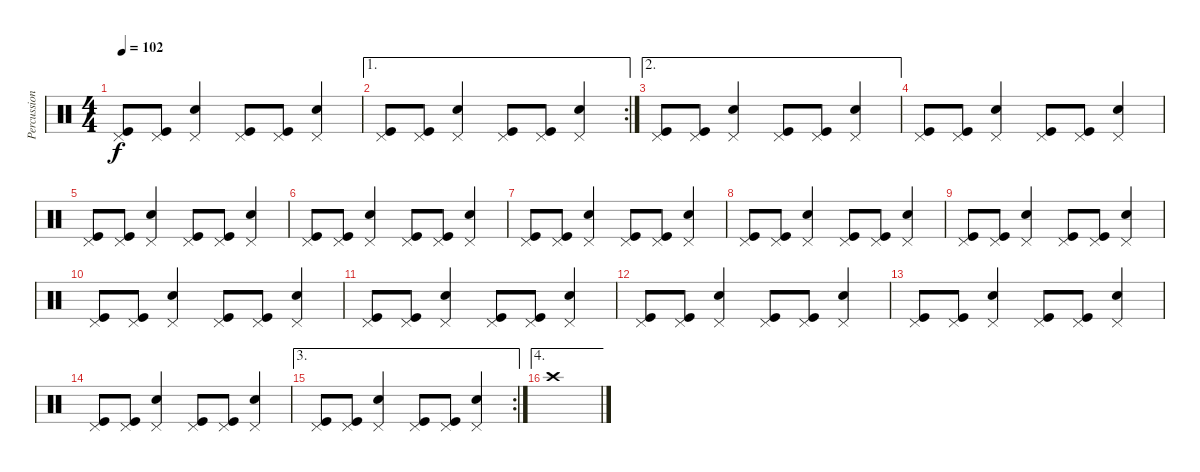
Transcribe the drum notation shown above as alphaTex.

\track ("Percussion" "Percussion") {instrument percussion}
\staff {score}
\articulation defaults
\ts (4 4)
\tempo 102
\clef neutral
\ks c
("Kick (hit)" "Pedal Hi-Hat (hit)").8{dy f} ("Pedal Hi-Hat (hit)" "Kick (hit)").8 ("Pedal Hi-Hat (hit)" "Snare (hit) 2").4 ("Kick (hit)" "Pedal Hi-Hat (hit)").8 ("Kick (hit)" "Pedal Hi-Hat (hit)").8 ("Snare (hit) 2" "Pedal Hi-Hat (hit)").4 |
\ae 1
\rc 2
("Kick (hit)" "Pedal Hi-Hat (hit)").8 ("Pedal Hi-Hat (hit)" "Kick (hit)").8 ("Pedal Hi-Hat (hit)" "Snare (hit) 2").4 ("Kick (hit)" "Pedal Hi-Hat (hit)").8 ("Kick (hit)" "Pedal Hi-Hat (hit)").8 ("Snare (hit) 2" "Pedal Hi-Hat (hit)").4 |
\ae 2
("Kick (hit)" "Pedal Hi-Hat (hit)").8 ("Pedal Hi-Hat (hit)" "Kick (hit)").8 ("Pedal Hi-Hat (hit)" "Snare (hit) 2").4 ("Kick (hit)" "Pedal Hi-Hat (hit)").8 ("Kick (hit)" "Pedal Hi-Hat (hit)").8 ("Snare (hit) 2" "Pedal Hi-Hat (hit)").4 |
("Kick (hit)" "Pedal Hi-Hat (hit)").8 ("Pedal Hi-Hat (hit)" "Kick (hit)").8 ("Pedal Hi-Hat (hit)" "Snare (hit) 2").4 ("Kick (hit)" "Pedal Hi-Hat (hit)").8 ("Kick (hit)" "Pedal Hi-Hat (hit)").8 ("Snare (hit) 2" "Pedal Hi-Hat (hit)").4 |
("Kick (hit)" "Pedal Hi-Hat (hit)").8 ("Pedal Hi-Hat (hit)" "Kick (hit)").8 ("Pedal Hi-Hat (hit)" "Snare (hit) 2").4 ("Kick (hit)" "Pedal Hi-Hat (hit)").8 ("Kick (hit)" "Pedal Hi-Hat (hit)").8 ("Snare (hit) 2" "Pedal Hi-Hat (hit)").4 |
("Kick (hit)" "Pedal Hi-Hat (hit)").8 ("Pedal Hi-Hat (hit)" "Kick (hit)").8 ("Pedal Hi-Hat (hit)" "Snare (hit) 2").4 ("Kick (hit)" "Pedal Hi-Hat (hit)").8 ("Kick (hit)" "Pedal Hi-Hat (hit)").8 ("Snare (hit) 2" "Pedal Hi-Hat (hit)").4 |
("Kick (hit)" "Pedal Hi-Hat (hit)").8 ("Pedal Hi-Hat (hit)" "Kick (hit)").8 ("Pedal Hi-Hat (hit)" "Snare (hit) 2").4 ("Kick (hit)" "Pedal Hi-Hat (hit)").8 ("Kick (hit)" "Pedal Hi-Hat (hit)").8 ("Snare (hit) 2" "Pedal Hi-Hat (hit)").4 |
("Kick (hit)" "Pedal Hi-Hat (hit)").8 ("Pedal Hi-Hat (hit)" "Kick (hit)").8 ("Pedal Hi-Hat (hit)" "Snare (hit) 2").4 ("Kick (hit)" "Pedal Hi-Hat (hit)").8 ("Kick (hit)" "Pedal Hi-Hat (hit)").8 ("Snare (hit) 2" "Pedal Hi-Hat (hit)").4 |
("Kick (hit)" "Pedal Hi-Hat (hit)").8 ("Pedal Hi-Hat (hit)" "Kick (hit)").8 ("Pedal Hi-Hat (hit)" "Snare (hit) 2").4 ("Kick (hit)" "Pedal Hi-Hat (hit)").8 ("Kick (hit)" "Pedal Hi-Hat (hit)").8 ("Snare (hit) 2" "Pedal Hi-Hat (hit)").4 |
("Kick (hit)" "Pedal Hi-Hat (hit)").8 ("Pedal Hi-Hat (hit)" "Kick (hit)").8 ("Pedal Hi-Hat (hit)" "Snare (hit) 2").4 ("Kick (hit)" "Pedal Hi-Hat (hit)").8 ("Kick (hit)" "Pedal Hi-Hat (hit)").8 ("Snare (hit) 2" "Pedal Hi-Hat (hit)").4 |
("Kick (hit)" "Pedal Hi-Hat (hit)").8 ("Pedal Hi-Hat (hit)" "Kick (hit)").8 ("Pedal Hi-Hat (hit)" "Snare (hit) 2").4 ("Kick (hit)" "Pedal Hi-Hat (hit)").8 ("Kick (hit)" "Pedal Hi-Hat (hit)").8 ("Snare (hit) 2" "Pedal Hi-Hat (hit)").4 |
("Kick (hit)" "Pedal Hi-Hat (hit)").8 ("Pedal Hi-Hat (hit)" "Kick (hit)").8 ("Pedal Hi-Hat (hit)" "Snare (hit) 2").4 ("Kick (hit)" "Pedal Hi-Hat (hit)").8 ("Kick (hit)" "Pedal Hi-Hat (hit)").8 ("Snare (hit) 2" "Pedal Hi-Hat (hit)").4 |
("Kick (hit)" "Pedal Hi-Hat (hit)").8 ("Pedal Hi-Hat (hit)" "Kick (hit)").8 ("Pedal Hi-Hat (hit)" "Snare (hit) 2").4 ("Kick (hit)" "Pedal Hi-Hat (hit)").8 ("Kick (hit)" "Pedal Hi-Hat (hit)").8 ("Snare (hit) 2" "Pedal Hi-Hat (hit)").4 |
("Kick (hit)" "Pedal Hi-Hat (hit)").8 ("Pedal Hi-Hat (hit)" "Kick (hit)").8 ("Pedal Hi-Hat (hit)" "Snare (hit) 2").4 ("Kick (hit)" "Pedal Hi-Hat (hit)").8 ("Kick (hit)" "Pedal Hi-Hat (hit)").8 ("Snare (hit) 2" "Pedal Hi-Hat (hit)").4 |
\ae 3
\rc 2
("Kick (hit)" "Pedal Hi-Hat (hit)").8 ("Pedal Hi-Hat (hit)" "Kick (hit)").8 ("Pedal Hi-Hat (hit)" "Snare (hit) 2").4 ("Kick (hit)" "Pedal Hi-Hat (hit)").8 ("Kick (hit)" "Pedal Hi-Hat (hit)").8 ("Snare (hit) 2" "Pedal Hi-Hat (hit)").4 |
\ae 4 "Crash high (hit)".1
